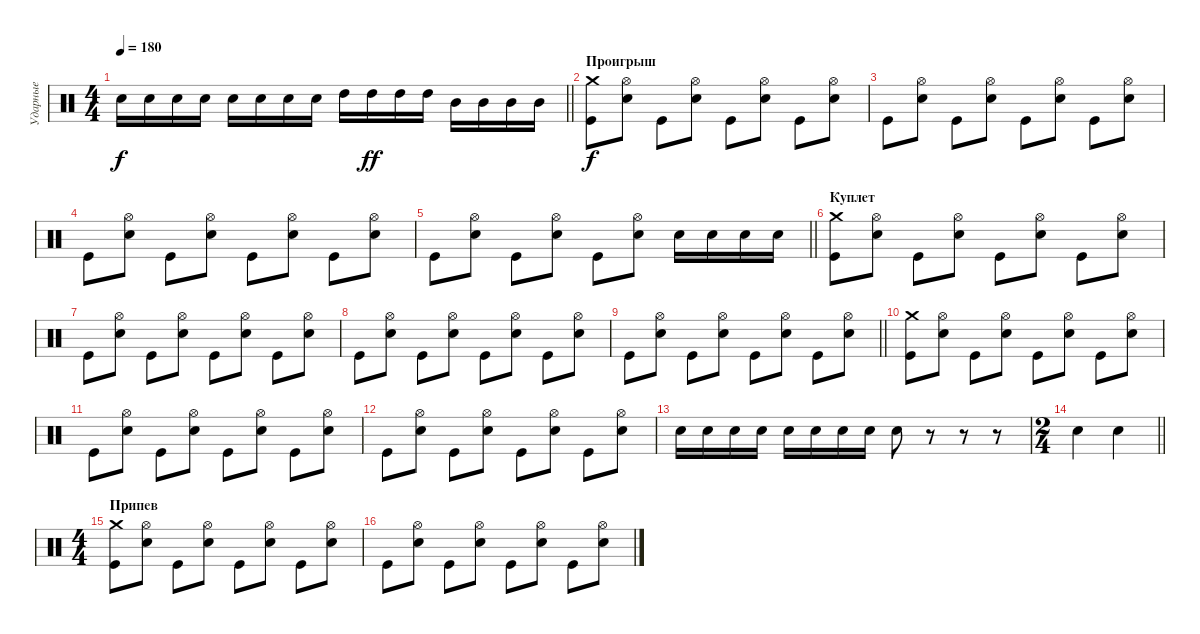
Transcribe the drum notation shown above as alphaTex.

\track ("Ударные" "Ударные") {instrument percussion}
\staff {score}
\articulation defaults
\ts (4 4)
\tempo 180
\clef neutral
\barLineRight lightlight
\ks c "Electric Snare (hit)".16{dy f} "Electric Snare (hit)".16 "Electric Snare (hit)".16 "Electric Snare (hit)".16 "Electric Snare (hit)".16 "Electric Snare (hit)".16 "Electric Snare (hit)".16 "Electric Snare (hit)".16 "High Tom (hit)".16 "High Tom (hit)".16{dy ff} "High Tom (hit)".16 "High Tom (hit)".16 "Mid Tom (hit)".16 "Mid Tom (hit)".16 "Mid Tom (hit)".16 "Mid Tom (hit)".16
|
\section ("" "Проигрыш")
("Crash medium (hit)" "Kick (hit)").8{dy f} ("Hi-Hat (open)" "Electric Snare (hit)").8 "Kick (hit)".8 ("Hi-Hat (open)" "Electric Snare (hit)").8 "Kick (hit)".8 ("Hi-Hat (open)" "Electric Snare (hit)").8 "Kick (hit)".8 ("Hi-Hat (open)" "Electric Snare (hit)").8 |
"Kick (hit)".8 ("Hi-Hat (open)" "Electric Snare (hit)").8 "Kick (hit)".8 ("Hi-Hat (open)" "Electric Snare (hit)").8 "Kick (hit)".8 ("Hi-Hat (open)" "Electric Snare (hit)").8 "Kick (hit)".8 ("Hi-Hat (open)" "Electric Snare (hit)").8 |
"Kick (hit)".8 ("Hi-Hat (open)" "Electric Snare (hit)").8 "Kick (hit)".8 ("Hi-Hat (open)" "Electric Snare (hit)").8 "Kick (hit)".8 ("Hi-Hat (open)" "Electric Snare (hit)").8 "Kick (hit)".8 ("Hi-Hat (open)" "Electric Snare (hit)").8 |
\barLineRight lightlight "Kick (hit)".8
("Hi-Hat (open)" "Electric Snare (hit)").8 "Kick (hit)".8 ("Hi-Hat (open)" "Electric Snare (hit)").8 "Kick (hit)".8 ("Hi-Hat (open)" "Electric Snare (hit)").8 "Electric Snare (hit)".16 "Electric Snare (hit)".16 "Electric Snare (hit)".16 "Electric Snare (hit)".16 |
\section ("" "Куплет")
("Crash medium (hit)" "Kick (hit)").8 ("Hi-Hat (open)" "Electric Snare (hit)").8 "Kick (hit)".8 ("Hi-Hat (open)" "Electric Snare (hit)").8 "Kick (hit)".8 ("Hi-Hat (open)" "Electric Snare (hit)").8 "Kick (hit)".8 ("Hi-Hat (open)" "Electric Snare (hit)").8 |
"Kick (hit)".8 ("Hi-Hat (open)" "Electric Snare (hit)").8 "Kick (hit)".8 ("Hi-Hat (open)" "Electric Snare (hit)").8 "Kick (hit)".8 ("Hi-Hat (open)" "Electric Snare (hit)").8 "Kick (hit)".8 ("Hi-Hat (open)" "Electric Snare (hit)").8 |
"Kick (hit)".8 ("Hi-Hat (open)" "Electric Snare (hit)").8 "Kick (hit)".8 ("Hi-Hat (open)" "Electric Snare (hit)").8 "Kick (hit)".8 ("Hi-Hat (open)" "Electric Snare (hit)").8 "Kick (hit)".8 ("Hi-Hat (open)" "Electric Snare (hit)").8 |
\barLineRight lightlight "Kick (hit)".8
("Hi-Hat (open)" "Electric Snare (hit)").8 "Kick (hit)".8 ("Hi-Hat (open)" "Electric Snare (hit)").8 "Kick (hit)".8 ("Hi-Hat (open)" "Electric Snare (hit)").8 "Kick (hit)".8 ("Hi-Hat (open)" "Electric Snare (hit)").8 |
\section ("" " ")
("Crash medium (hit)" "Kick (hit)").8 ("Hi-Hat (open)" "Electric Snare (hit)").8 "Kick (hit)".8 ("Hi-Hat (open)" "Electric Snare (hit)").8 "Kick (hit)".8 ("Hi-Hat (open)" "Electric Snare (hit)").8 "Kick (hit)".8 ("Hi-Hat (open)" "Electric Snare (hit)").8 |
"Kick (hit)".8 ("Hi-Hat (open)" "Electric Snare (hit)").8 "Kick (hit)".8 ("Hi-Hat (open)" "Electric Snare (hit)").8 "Kick (hit)".8 ("Hi-Hat (open)" "Electric Snare (hit)").8 "Kick (hit)".8 ("Hi-Hat (open)" "Electric Snare (hit)").8 |
"Kick (hit)".8 ("Hi-Hat (open)" "Electric Snare (hit)").8 "Kick (hit)".8 ("Hi-Hat (open)" "Electric Snare (hit)").8 "Kick (hit)".8 ("Hi-Hat (open)" "Electric Snare (hit)").8 "Kick (hit)".8 ("Hi-Hat (open)" "Electric Snare (hit)").8 |
"Electric Snare (hit)".16 "Electric Snare (hit)".16 "Electric Snare (hit)".16 "Electric Snare (hit)".16 "Electric Snare (hit)".16 "Electric Snare (hit)".16 "Electric Snare (hit)".16 "Electric Snare (hit)".16 "Electric Snare (hit)".8 r.8 r.8 r.8 |
\ts (2 4)
\barLineRight lightlight "Electric Snare (hit)".4 "Electric Snare (hit)".4
|
\ts (4 4)
\section ("" "Припев")
("Crash medium (hit)" "Kick (hit)").8 ("Hi-Hat (open)" "Electric Snare (hit)").8 "Kick (hit)".8 ("Hi-Hat (open)" "Electric Snare (hit)").8 "Kick (hit)".8 ("Hi-Hat (open)" "Electric Snare (hit)").8 "Kick (hit)".8 ("Hi-Hat (open)" "Electric Snare (hit)").8 |
"Kick (hit)".8 ("Hi-Hat (open)" "Electric Snare (hit)").8 "Kick (hit)".8 ("Hi-Hat (open)" "Electric Snare (hit)").8 "Kick (hit)".8 ("Hi-Hat (open)" "Electric Snare (hit)").8 "Kick (hit)".8 ("Hi-Hat (open)" "Electric Snare (hit)").8
